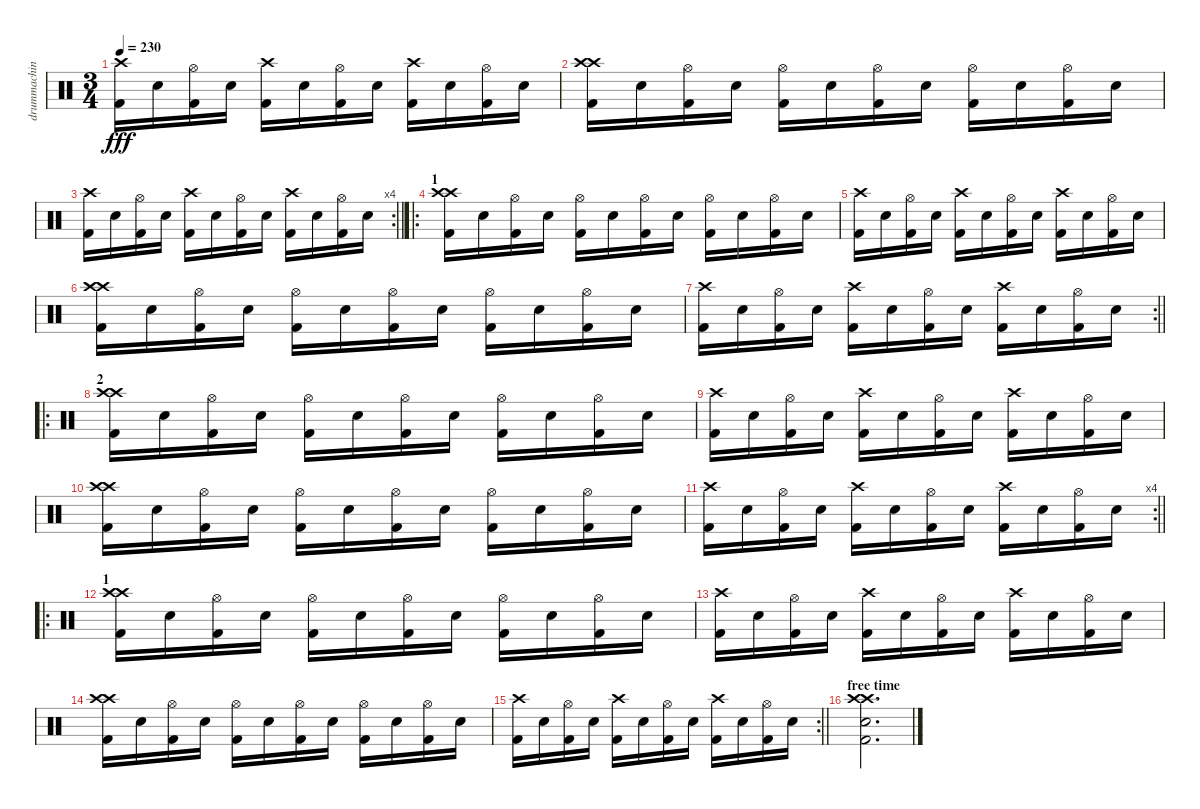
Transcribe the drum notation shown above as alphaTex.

\track ("drummachine" "drummachin") {instrument percussion}
\staff {score}
\articulation defaults
\ts (3 4)
\tempo 230
\clef neutral
\ks c
("Crash high (hit)" "Kick (hit) 2").16{dy fff} "Snare (hit) 2".16 ("Hi-Hat (open)" "Kick (hit) 2").16 "Snare (hit) 2".16 ("Crash high (hit)" "Kick (hit) 2").16 "Snare (hit) 2".16 ("Hi-Hat (open)" "Kick (hit) 2").16 "Snare (hit) 2".16 ("Crash high (hit)" "Kick (hit) 2").16 "Snare (hit) 2".16 ("Hi-Hat (open)" "Kick (hit) 2").16 "Snare (hit) 2".16 |
("Crash high (hit)" "Crash high (hit)" "Kick (hit) 2").16 "Snare (hit) 2".16 ("Hi-Hat (open)" "Kick (hit) 2").16 "Snare (hit) 2".16 ("Hi-Hat (open)" "Kick (hit) 2").16 "Snare (hit) 2".16 ("Hi-Hat (open)" "Kick (hit) 2").16 "Snare (hit) 2".16 ("Hi-Hat (open)" "Kick (hit) 2").16 "Snare (hit) 2".16 ("Hi-Hat (open)" "Kick (hit) 2").16 "Snare (hit) 2".16 |
\rc 4
\barLineRight lightlight
("Crash high (hit)" "Kick (hit) 2").16 "Snare (hit) 2".16 ("Hi-Hat (open)" "Kick (hit) 2").16 "Snare (hit) 2".16 ("Crash high (hit)" "Kick (hit) 2").16 "Snare (hit) 2".16 ("Hi-Hat (open)" "Kick (hit) 2").16 "Snare (hit) 2".16 ("Crash high (hit)" "Kick (hit) 2").16 "Snare (hit) 2".16 ("Hi-Hat (open)" "Kick (hit) 2").16 "Snare (hit) 2".16 |
\ro
\section ("" "1")
("Crash high (hit)" "Crash high (hit)" "Kick (hit) 2").16 "Snare (hit) 2".16 ("Hi-Hat (open)" "Kick (hit) 2").16 "Snare (hit) 2".16 ("Hi-Hat (open)" "Kick (hit) 2").16 "Snare (hit) 2".16 ("Hi-Hat (open)" "Kick (hit) 2").16 "Snare (hit) 2".16 ("Hi-Hat (open)" "Kick (hit) 2").16 "Snare (hit) 2".16 ("Hi-Hat (open)" "Kick (hit) 2").16 "Snare (hit) 2".16 |
("Crash high (hit)" "Kick (hit) 2").16 "Snare (hit) 2".16 ("Hi-Hat (open)" "Kick (hit) 2").16 "Snare (hit) 2".16 ("Crash high (hit)" "Kick (hit) 2").16 "Snare (hit) 2".16 ("Hi-Hat (open)" "Kick (hit) 2").16 "Snare (hit) 2".16 ("Crash high (hit)" "Kick (hit) 2").16 "Snare (hit) 2".16 ("Hi-Hat (open)" "Kick (hit) 2").16 "Snare (hit) 2".16 |
("Crash high (hit)" "Crash high (hit)" "Kick (hit) 2").16 "Snare (hit) 2".16 ("Hi-Hat (open)" "Kick (hit) 2").16 "Snare (hit) 2".16 ("Hi-Hat (open)" "Kick (hit) 2").16 "Snare (hit) 2".16 ("Hi-Hat (open)" "Kick (hit) 2").16 "Snare (hit) 2".16 ("Hi-Hat (open)" "Kick (hit) 2").16 "Snare (hit) 2".16 ("Hi-Hat (open)" "Kick (hit) 2").16 "Snare (hit) 2".16 |
\rc 2
\barLineRight lightlight
("Crash high (hit)" "Kick (hit) 2").16 "Snare (hit) 2".16 ("Hi-Hat (open)" "Kick (hit) 2").16 "Snare (hit) 2".16 ("Crash high (hit)" "Kick (hit) 2").16 "Snare (hit) 2".16 ("Hi-Hat (open)" "Kick (hit) 2").16 "Snare (hit) 2".16 ("Crash high (hit)" "Kick (hit) 2").16 "Snare (hit) 2".16 ("Hi-Hat (open)" "Kick (hit) 2").16 "Snare (hit) 2".16 |
\ro
\section ("" "2")
("Crash high (hit)" "Crash high (hit)" "Kick (hit) 2").16 "Snare (hit) 2".16 ("Hi-Hat (open)" "Kick (hit) 2").16 "Snare (hit) 2".16 ("Hi-Hat (open)" "Kick (hit) 2").16 "Snare (hit) 2".16 ("Hi-Hat (open)" "Kick (hit) 2").16 "Snare (hit) 2".16 ("Hi-Hat (open)" "Kick (hit) 2").16 "Snare (hit) 2".16 ("Hi-Hat (open)" "Kick (hit) 2").16 "Snare (hit) 2".16 |
("Crash high (hit)" "Kick (hit) 2").16 "Snare (hit) 2".16 ("Hi-Hat (open)" "Kick (hit) 2").16 "Snare (hit) 2".16 ("Crash high (hit)" "Kick (hit) 2").16 "Snare (hit) 2".16 ("Hi-Hat (open)" "Kick (hit) 2").16 "Snare (hit) 2".16 ("Crash high (hit)" "Kick (hit) 2").16 "Snare (hit) 2".16 ("Hi-Hat (open)" "Kick (hit) 2").16 "Snare (hit) 2".16 |
("Crash high (hit)" "Crash high (hit)" "Kick (hit) 2").16 "Snare (hit) 2".16 ("Hi-Hat (open)" "Kick (hit) 2").16 "Snare (hit) 2".16 ("Hi-Hat (open)" "Kick (hit) 2").16 "Snare (hit) 2".16 ("Hi-Hat (open)" "Kick (hit) 2").16 "Snare (hit) 2".16 ("Hi-Hat (open)" "Kick (hit) 2").16 "Snare (hit) 2".16 ("Hi-Hat (open)" "Kick (hit) 2").16 "Snare (hit) 2".16 |
\rc 4
\barLineRight lightlight
("Crash high (hit)" "Kick (hit) 2").16 "Snare (hit) 2".16 ("Hi-Hat (open)" "Kick (hit) 2").16 "Snare (hit) 2".16 ("Crash high (hit)" "Kick (hit) 2").16 "Snare (hit) 2".16 ("Hi-Hat (open)" "Kick (hit) 2").16 "Snare (hit) 2".16 ("Crash high (hit)" "Kick (hit) 2").16 "Snare (hit) 2".16 ("Hi-Hat (open)" "Kick (hit) 2").16 "Snare (hit) 2".16 |
\ro
\section ("" "1")
("Crash high (hit)" "Crash high (hit)" "Kick (hit) 2").16 "Snare (hit) 2".16 ("Hi-Hat (open)" "Kick (hit) 2").16 "Snare (hit) 2".16 ("Hi-Hat (open)" "Kick (hit) 2").16 "Snare (hit) 2".16 ("Hi-Hat (open)" "Kick (hit) 2").16 "Snare (hit) 2".16 ("Hi-Hat (open)" "Kick (hit) 2").16 "Snare (hit) 2".16 ("Hi-Hat (open)" "Kick (hit) 2").16 "Snare (hit) 2".16 |
("Crash high (hit)" "Kick (hit) 2").16 "Snare (hit) 2".16 ("Hi-Hat (open)" "Kick (hit) 2").16 "Snare (hit) 2".16 ("Crash high (hit)" "Kick (hit) 2").16 "Snare (hit) 2".16 ("Hi-Hat (open)" "Kick (hit) 2").16 "Snare (hit) 2".16 ("Crash high (hit)" "Kick (hit) 2").16 "Snare (hit) 2".16 ("Hi-Hat (open)" "Kick (hit) 2").16 "Snare (hit) 2".16 |
("Crash high (hit)" "Crash high (hit)" "Kick (hit) 2").16 "Snare (hit) 2".16 ("Hi-Hat (open)" "Kick (hit) 2").16 "Snare (hit) 2".16 ("Hi-Hat (open)" "Kick (hit) 2").16 "Snare (hit) 2".16 ("Hi-Hat (open)" "Kick (hit) 2").16 "Snare (hit) 2".16 ("Hi-Hat (open)" "Kick (hit) 2").16 "Snare (hit) 2".16 ("Hi-Hat (open)" "Kick (hit) 2").16 "Snare (hit) 2".16 |
\rc 2
\barLineRight lightlight
("Crash high (hit)" "Kick (hit) 2").16 "Snare (hit) 2".16 ("Hi-Hat (open)" "Kick (hit) 2").16 "Snare (hit) 2".16 ("Crash high (hit)" "Kick (hit) 2").16 "Snare (hit) 2".16 ("Hi-Hat (open)" "Kick (hit) 2").16 "Snare (hit) 2".16 ("Crash high (hit)" "Kick (hit) 2").16 "Snare (hit) 2".16 ("Hi-Hat (open)" "Kick (hit) 2").16 "Snare (hit) 2".16 |
\section ("" "free time")
("Crash high (hit)" "Crash high (hit)" "Snare (hit) 2" "Kick (hit) 2").2{d}
